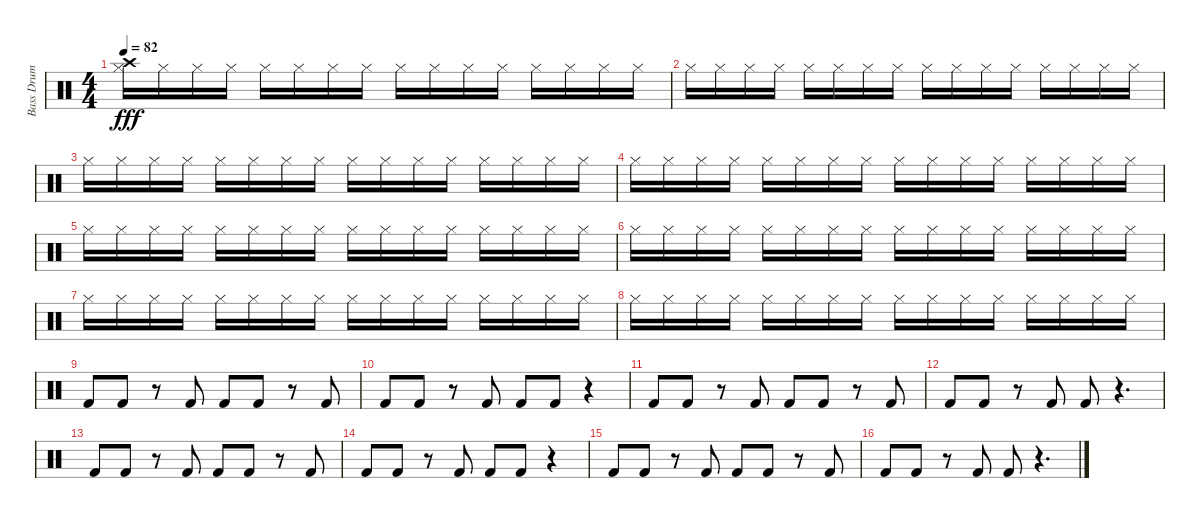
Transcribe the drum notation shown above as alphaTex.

\track ("Bass Drum" "Bass Drum") {instrument percussion}
\staff {score}
\articulation defaults
\ts (4 4)
\tempo 82
\clef neutral
\ks c
("Crash high (hit)" "Hi-Hat (closed)").16{dy fff} "Hi-Hat (closed)".16 "Hi-Hat (closed)".16 "Hi-Hat (closed)".16 "Hi-Hat (closed)".16 "Hi-Hat (closed)".16 "Hi-Hat (closed)".16 "Hi-Hat (closed)".16 "Hi-Hat (closed)".16 "Hi-Hat (closed)".16 "Hi-Hat (closed)".16 "Hi-Hat (closed)".16 "Hi-Hat (closed)".16 "Hi-Hat (closed)".16 "Hi-Hat (closed)".16 "Hi-Hat (closed)".16 |
"Hi-Hat (closed)".16 "Hi-Hat (closed)".16 "Hi-Hat (closed)".16 "Hi-Hat (closed)".16 "Hi-Hat (closed)".16 "Hi-Hat (closed)".16 "Hi-Hat (closed)".16 "Hi-Hat (closed)".16 "Hi-Hat (closed)".16 "Hi-Hat (closed)".16 "Hi-Hat (closed)".16 "Hi-Hat (closed)".16 "Hi-Hat (closed)".16 "Hi-Hat (closed)".16 "Hi-Hat (closed)".16 "Hi-Hat (closed)".16 |
"Hi-Hat (closed)".16 "Hi-Hat (closed)".16 "Hi-Hat (closed)".16 "Hi-Hat (closed)".16 "Hi-Hat (closed)".16 "Hi-Hat (closed)".16 "Hi-Hat (closed)".16 "Hi-Hat (closed)".16 "Hi-Hat (closed)".16 "Hi-Hat (closed)".16 "Hi-Hat (closed)".16 "Hi-Hat (closed)".16 "Hi-Hat (closed)".16 "Hi-Hat (closed)".16 "Hi-Hat (closed)".16 "Hi-Hat (closed)".16 |
"Hi-Hat (closed)".16 "Hi-Hat (closed)".16 "Hi-Hat (closed)".16 "Hi-Hat (closed)".16 "Hi-Hat (closed)".16 "Hi-Hat (closed)".16 "Hi-Hat (closed)".16 "Hi-Hat (closed)".16 "Hi-Hat (closed)".16 "Hi-Hat (closed)".16 "Hi-Hat (closed)".16 "Hi-Hat (closed)".16 "Hi-Hat (closed)".16 "Hi-Hat (closed)".16 "Hi-Hat (closed)".16 "Hi-Hat (closed)".16 |
"Hi-Hat (closed)".16 "Hi-Hat (closed)".16 "Hi-Hat (closed)".16 "Hi-Hat (closed)".16 "Hi-Hat (closed)".16 "Hi-Hat (closed)".16 "Hi-Hat (closed)".16 "Hi-Hat (closed)".16 "Hi-Hat (closed)".16 "Hi-Hat (closed)".16 "Hi-Hat (closed)".16 "Hi-Hat (closed)".16 "Hi-Hat (closed)".16 "Hi-Hat (closed)".16 "Hi-Hat (closed)".16 "Hi-Hat (closed)".16 |
"Hi-Hat (closed)".16 "Hi-Hat (closed)".16 "Hi-Hat (closed)".16 "Hi-Hat (closed)".16 "Hi-Hat (closed)".16 "Hi-Hat (closed)".16 "Hi-Hat (closed)".16 "Hi-Hat (closed)".16 "Hi-Hat (closed)".16 "Hi-Hat (closed)".16 "Hi-Hat (closed)".16 "Hi-Hat (closed)".16 "Hi-Hat (closed)".16 "Hi-Hat (closed)".16 "Hi-Hat (closed)".16 "Hi-Hat (closed)".16 |
"Hi-Hat (closed)".16 "Hi-Hat (closed)".16 "Hi-Hat (closed)".16 "Hi-Hat (closed)".16 "Hi-Hat (closed)".16 "Hi-Hat (closed)".16 "Hi-Hat (closed)".16 "Hi-Hat (closed)".16 "Hi-Hat (closed)".16 "Hi-Hat (closed)".16 "Hi-Hat (closed)".16 "Hi-Hat (closed)".16 "Hi-Hat (closed)".16 "Hi-Hat (closed)".16 "Hi-Hat (closed)".16 "Hi-Hat (closed)".16 |
"Hi-Hat (closed)".16 "Hi-Hat (closed)".16 "Hi-Hat (closed)".16 "Hi-Hat (closed)".16 "Hi-Hat (closed)".16 "Hi-Hat (closed)".16 "Hi-Hat (closed)".16 "Hi-Hat (closed)".16 "Hi-Hat (closed)".16 "Hi-Hat (closed)".16 "Hi-Hat (closed)".16 "Hi-Hat (closed)".16 "Hi-Hat (closed)".16 "Hi-Hat (closed)".16 "Hi-Hat (closed)".16 "Hi-Hat (closed)".16 |
"Kick (hit) 2".8 "Kick (hit) 2".8 r.8 "Kick (hit) 2".8 "Kick (hit) 2".8 "Kick (hit) 2".8 r.8 "Kick (hit) 2".8 |
"Kick (hit) 2".8 "Kick (hit) 2".8 r.8 "Kick (hit) 2".8 "Kick (hit) 2".8 "Kick (hit) 2".8 r.4 |
"Kick (hit) 2".8 "Kick (hit) 2".8 r.8 "Kick (hit) 2".8 "Kick (hit) 2".8 "Kick (hit) 2".8 r.8 "Kick (hit) 2".8 |
"Kick (hit) 2".8 "Kick (hit) 2".8 r.8 "Kick (hit) 2".8 "Kick (hit) 2".8 r.4{d} |
"Kick (hit) 2".8 "Kick (hit) 2".8 r.8 "Kick (hit) 2".8 "Kick (hit) 2".8 "Kick (hit) 2".8 r.8 "Kick (hit) 2".8 |
"Kick (hit) 2".8 "Kick (hit) 2".8 r.8 "Kick (hit) 2".8 "Kick (hit) 2".8 "Kick (hit) 2".8 r.4 |
"Kick (hit) 2".8 "Kick (hit) 2".8 r.8 "Kick (hit) 2".8 "Kick (hit) 2".8 "Kick (hit) 2".8 r.8 "Kick (hit) 2".8 |
"Kick (hit) 2".8 "Kick (hit) 2".8 r.8 "Kick (hit) 2".8 "Kick (hit) 2".8 r.4{d}
